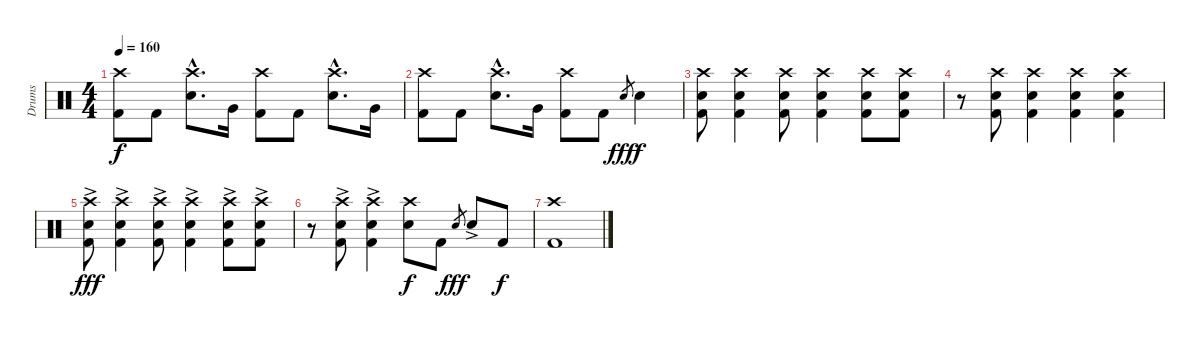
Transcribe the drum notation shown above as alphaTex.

\track ("Drums" "Drums") {instrument percussion}
\staff {score}
\articulation defaults
\ts (4 4)
\tempo 160
\clef neutral
\ks c
("Crash high (hit)" "Kick (hit) 2").8{dy f} "Kick (hit) 2".8 ("Crash high (hit)"{hac} "Electric Snare (hit)"{hac}).8{d} "Very Low Tom (hit)".16 ("Crash high (hit)" "Kick (hit) 2").8 "Kick (hit) 2".8 ("Crash high (hit)"{hac} "Electric Snare (hit)"{hac}).8{d} "Very Low Tom (hit)".16 |
("Crash high (hit)" "Kick (hit) 2").8 "Kick (hit) 2".8 ("Crash high (hit)"{hac} "Electric Snare (hit)"{hac}).8{d} "Very Low Tom (hit)".16 ("Crash high (hit)" "Kick (hit) 2").8 "Kick (hit) 2".8 "Electric Snare (hit)".8{gr dy fff} "Electric Snare (hit)".4{dy f} |
("Crash high (hit)" "Electric Snare (hit)" "Kick (hit) 2").8 ("Crash high (hit)" "Electric Snare (hit)" "Kick (hit) 2").4 ("Crash high (hit)" "Electric Snare (hit)" "Kick (hit) 2").8 ("Crash high (hit)" "Electric Snare (hit)" "Kick (hit) 2").4 ("Crash high (hit)" "Electric Snare (hit)" "Kick (hit) 2").8 ("Crash high (hit)" "Electric Snare (hit)" "Kick (hit) 2").8 |
r.8 ("Crash high (hit)" "Electric Snare (hit)" "Kick (hit) 2").8 ("Crash high (hit)" "Electric Snare (hit)" "Kick (hit) 2").4 ("Crash high (hit)" "Electric Snare (hit)" "Kick (hit) 2").4 ("Crash high (hit)" "Electric Snare (hit)" "Kick (hit) 2").4 |
("Crash high (hit)" "Electric Snare (hit)"{ac} "Kick (hit) 2"{ac}).8{dy fff} ("Crash high (hit)" "Electric Snare (hit)"{ac} "Kick (hit) 2"{ac}).4 ("Crash high (hit)" "Electric Snare (hit)"{ac} "Kick (hit) 2"{ac}).8 ("Crash high (hit)" "Electric Snare (hit)"{ac} "Kick (hit) 2"{ac}).4 ("Crash high (hit)" "Electric Snare (hit)"{ac} "Kick (hit) 2"{ac}).8 ("Crash high (hit)" "Electric Snare (hit)"{ac} "Kick (hit) 2"{ac}).8 |
r.8 ("Crash high (hit)" "Electric Snare (hit)"{ac} "Kick (hit) 2"{ac}).8 ("Crash high (hit)" "Electric Snare (hit)"{ac} "Kick (hit) 2"{ac}).4 ("Crash high (hit)" "Electric Snare (hit)").8{dy f} "Kick (hit) 2".8 "Electric Snare (hit)".8{gr dy fff} "Electric Snare (hit)"{ac}.8 "Kick (hit) 2".8{dy f} |
("Crash high (hit)" "Kick (hit) 2").1
